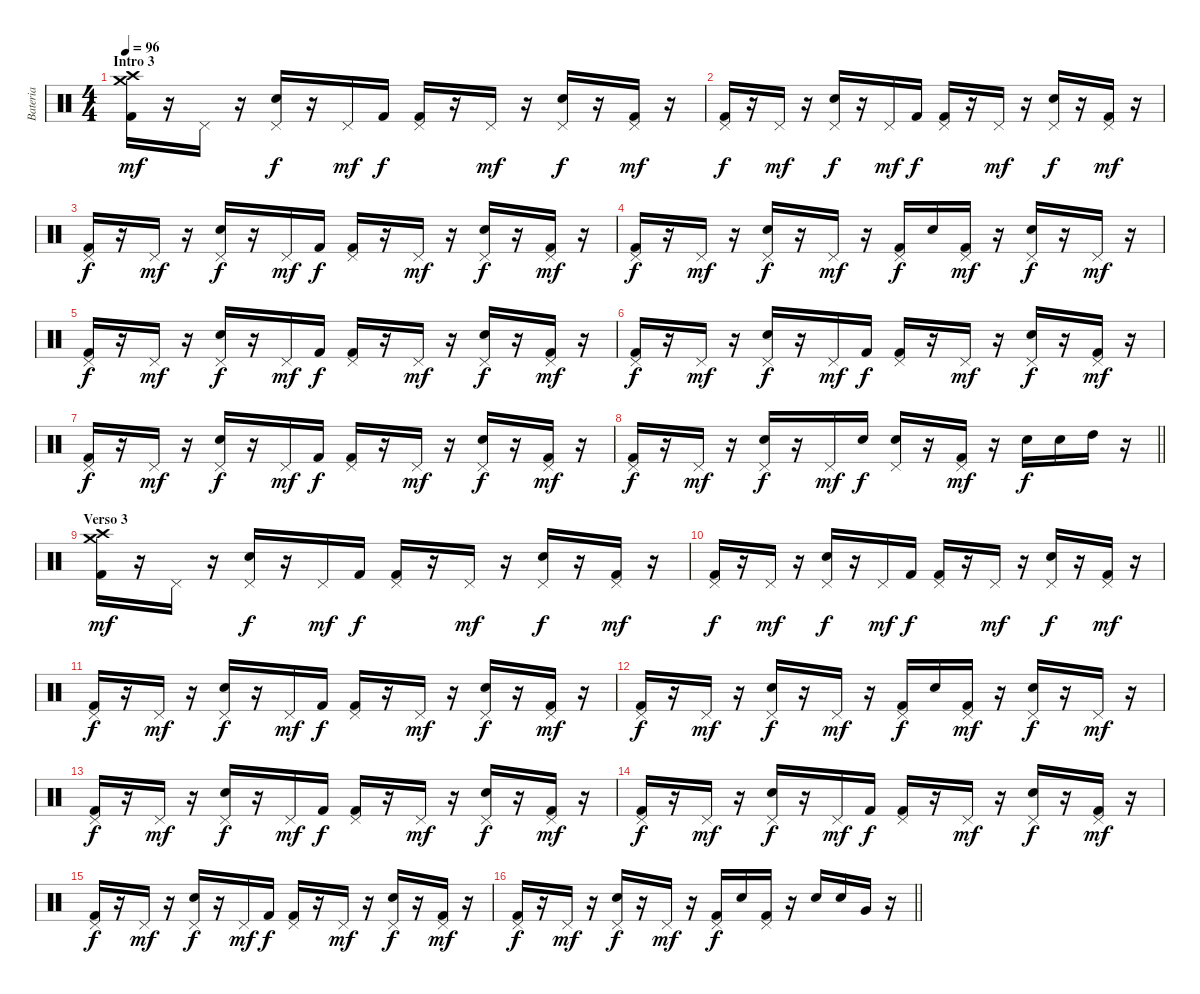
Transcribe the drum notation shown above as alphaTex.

\track ("Bateria" "Bateria") {instrument percussion}
\staff {score}
\articulation defaults
\ts (4 4)
\section ("" "Intro 3")
\tempo 96
\clef neutral
\ks c
("Crash medium (hit)" "Crash high (hit)" "Kick (hit) 2").16{dy mf} r.16 "Pedal Hi-Hat (hit)".16 r.16 ("Pedal Hi-Hat (hit)" "Electric Snare (hit)").16{dy f} r.16 "Pedal Hi-Hat (hit)".16{dy mf} "Kick (hit) 2".16{dy f} ("Pedal Hi-Hat (hit)" "Kick (hit) 2").16 r.16 "Pedal Hi-Hat (hit)".16{dy mf} r.16 ("Pedal Hi-Hat (hit)" "Electric Snare (hit)").16{dy f} r.16 ("Pedal Hi-Hat (hit)" "Kick (hit) 2").16{dy mf} r.16 |
("Pedal Hi-Hat (hit)" "Kick (hit) 2").16{dy f} r.16 "Pedal Hi-Hat (hit)".16{dy mf} r.16 ("Pedal Hi-Hat (hit)" "Electric Snare (hit)").16{dy f} r.16 "Pedal Hi-Hat (hit)".16{dy mf} "Kick (hit) 2".16{dy f} ("Pedal Hi-Hat (hit)" "Kick (hit) 2").16 r.16 "Pedal Hi-Hat (hit)".16{dy mf} r.16 ("Pedal Hi-Hat (hit)" "Electric Snare (hit)").16{dy f} r.16 ("Pedal Hi-Hat (hit)" "Kick (hit) 2").16{dy mf} r.16 |
("Pedal Hi-Hat (hit)" "Kick (hit) 2").16{dy f} r.16 "Pedal Hi-Hat (hit)".16{dy mf} r.16 ("Pedal Hi-Hat (hit)" "Electric Snare (hit)").16{dy f} r.16 "Pedal Hi-Hat (hit)".16{dy mf} "Kick (hit) 2".16{dy f} ("Pedal Hi-Hat (hit)" "Kick (hit) 2").16 r.16 "Pedal Hi-Hat (hit)".16{dy mf} r.16 ("Pedal Hi-Hat (hit)" "Electric Snare (hit)").16{dy f} r.16 ("Pedal Hi-Hat (hit)" "Kick (hit) 2").16{dy mf} r.16 |
("Pedal Hi-Hat (hit)" "Kick (hit) 2").16{dy f} r.16 "Pedal Hi-Hat (hit)".16{dy mf} r.16 ("Pedal Hi-Hat (hit)" "Electric Snare (hit)").16{dy f} r.16 "Pedal Hi-Hat (hit)".16{dy mf} r.16 ("Pedal Hi-Hat (hit)" "Kick (hit) 2").16{dy f} "Electric Snare (hit)".16 ("Pedal Hi-Hat (hit)" "Kick (hit) 2").16{dy mf} r.16 ("Pedal Hi-Hat (hit)" "Electric Snare (hit)").16{dy f} r.16 "Pedal Hi-Hat (hit)".16{dy mf} r.16 |
("Pedal Hi-Hat (hit)" "Kick (hit) 2").16{dy f} r.16 "Pedal Hi-Hat (hit)".16{dy mf} r.16 ("Pedal Hi-Hat (hit)" "Electric Snare (hit)").16{dy f} r.16 "Pedal Hi-Hat (hit)".16{dy mf} "Kick (hit) 2".16{dy f} ("Pedal Hi-Hat (hit)" "Kick (hit) 2").16 r.16 "Pedal Hi-Hat (hit)".16{dy mf} r.16 ("Pedal Hi-Hat (hit)" "Electric Snare (hit)").16{dy f} r.16 ("Pedal Hi-Hat (hit)" "Kick (hit) 2").16{dy mf} r.16 |
("Pedal Hi-Hat (hit)" "Kick (hit) 2").16{dy f} r.16 "Pedal Hi-Hat (hit)".16{dy mf} r.16 ("Pedal Hi-Hat (hit)" "Electric Snare (hit)").16{dy f} r.16 "Pedal Hi-Hat (hit)".16{dy mf} "Kick (hit) 2".16{dy f} ("Pedal Hi-Hat (hit)" "Kick (hit) 2").16 r.16 "Pedal Hi-Hat (hit)".16{dy mf} r.16 ("Pedal Hi-Hat (hit)" "Electric Snare (hit)").16{dy f} r.16 ("Pedal Hi-Hat (hit)" "Kick (hit) 2").16{dy mf} r.16 |
("Pedal Hi-Hat (hit)" "Kick (hit) 2").16{dy f} r.16 "Pedal Hi-Hat (hit)".16{dy mf} r.16 ("Pedal Hi-Hat (hit)" "Electric Snare (hit)").16{dy f} r.16 "Pedal Hi-Hat (hit)".16{dy mf} "Kick (hit) 2".16{dy f} ("Pedal Hi-Hat (hit)" "Kick (hit) 2").16 r.16 "Pedal Hi-Hat (hit)".16{dy mf} r.16 ("Pedal Hi-Hat (hit)" "Electric Snare (hit)").16{dy f} r.16 ("Pedal Hi-Hat (hit)" "Kick (hit) 2").16{dy mf} r.16 |
\barLineRight lightlight
("Pedal Hi-Hat (hit)" "Kick (hit) 2").16{dy f} r.16 "Pedal Hi-Hat (hit)".16{dy mf} r.16 ("Pedal Hi-Hat (hit)" "Electric Snare (hit)").16{dy f} r.16 "Pedal Hi-Hat (hit)".16{dy mf} "Electric Snare (hit)".16{dy f} ("Pedal Hi-Hat (hit)" "Electric Snare (hit)").16 r.16 ("Pedal Hi-Hat (hit)" "Kick (hit) 2").16{dy mf} r.16 "Electric Snare (hit)".16{dy f} "Electric Snare (hit)".16 "High Tom (hit)".16 r.16 |
\section ("" "Verso 3")
("Crash medium (hit)" "Crash high (hit)" "Kick (hit) 2").16{dy mf} r.16 "Pedal Hi-Hat (hit)".16 r.16 ("Pedal Hi-Hat (hit)" "Electric Snare (hit)").16{dy f} r.16 "Pedal Hi-Hat (hit)".16{dy mf} "Kick (hit) 2".16{dy f} ("Pedal Hi-Hat (hit)" "Kick (hit) 2").16 r.16 "Pedal Hi-Hat (hit)".16{dy mf} r.16 ("Pedal Hi-Hat (hit)" "Electric Snare (hit)").16{dy f} r.16 ("Pedal Hi-Hat (hit)" "Kick (hit) 2").16{dy mf} r.16 |
("Pedal Hi-Hat (hit)" "Kick (hit) 2").16{dy f} r.16 "Pedal Hi-Hat (hit)".16{dy mf} r.16 ("Pedal Hi-Hat (hit)" "Electric Snare (hit)").16{dy f} r.16 "Pedal Hi-Hat (hit)".16{dy mf} "Kick (hit) 2".16{dy f} ("Pedal Hi-Hat (hit)" "Kick (hit) 2").16 r.16 "Pedal Hi-Hat (hit)".16{dy mf} r.16 ("Pedal Hi-Hat (hit)" "Electric Snare (hit)").16{dy f} r.16 ("Pedal Hi-Hat (hit)" "Kick (hit) 2").16{dy mf} r.16 |
("Pedal Hi-Hat (hit)" "Kick (hit) 2").16{dy f} r.16 "Pedal Hi-Hat (hit)".16{dy mf} r.16 ("Pedal Hi-Hat (hit)" "Electric Snare (hit)").16{dy f} r.16 "Pedal Hi-Hat (hit)".16{dy mf} "Kick (hit) 2".16{dy f} ("Pedal Hi-Hat (hit)" "Kick (hit) 2").16 r.16 "Pedal Hi-Hat (hit)".16{dy mf} r.16 ("Pedal Hi-Hat (hit)" "Electric Snare (hit)").16{dy f} r.16 ("Pedal Hi-Hat (hit)" "Kick (hit) 2").16{dy mf} r.16 |
("Pedal Hi-Hat (hit)" "Kick (hit) 2").16{dy f} r.16 "Pedal Hi-Hat (hit)".16{dy mf} r.16 ("Pedal Hi-Hat (hit)" "Electric Snare (hit)").16{dy f} r.16 "Pedal Hi-Hat (hit)".16{dy mf} r.16 ("Pedal Hi-Hat (hit)" "Kick (hit) 2").16{dy f} "Electric Snare (hit)".16 ("Pedal Hi-Hat (hit)" "Kick (hit) 2").16{dy mf} r.16 ("Pedal Hi-Hat (hit)" "Electric Snare (hit)").16{dy f} r.16 "Pedal Hi-Hat (hit)".16{dy mf} r.16 |
("Pedal Hi-Hat (hit)" "Kick (hit) 2").16{dy f} r.16 "Pedal Hi-Hat (hit)".16{dy mf} r.16 ("Pedal Hi-Hat (hit)" "Electric Snare (hit)").16{dy f} r.16 "Pedal Hi-Hat (hit)".16{dy mf} "Kick (hit) 2".16{dy f} ("Pedal Hi-Hat (hit)" "Kick (hit) 2").16 r.16 "Pedal Hi-Hat (hit)".16{dy mf} r.16 ("Pedal Hi-Hat (hit)" "Electric Snare (hit)").16{dy f} r.16 ("Pedal Hi-Hat (hit)" "Kick (hit) 2").16{dy mf} r.16 |
("Pedal Hi-Hat (hit)" "Kick (hit) 2").16{dy f} r.16 "Pedal Hi-Hat (hit)".16{dy mf} r.16 ("Pedal Hi-Hat (hit)" "Electric Snare (hit)").16{dy f} r.16 "Pedal Hi-Hat (hit)".16{dy mf} "Kick (hit) 2".16{dy f} ("Pedal Hi-Hat (hit)" "Kick (hit) 2").16 r.16 "Pedal Hi-Hat (hit)".16{dy mf} r.16 ("Pedal Hi-Hat (hit)" "Electric Snare (hit)").16{dy f} r.16 ("Pedal Hi-Hat (hit)" "Kick (hit) 2").16{dy mf} r.16 |
("Pedal Hi-Hat (hit)" "Kick (hit) 2").16{dy f} r.16 "Pedal Hi-Hat (hit)".16{dy mf} r.16 ("Pedal Hi-Hat (hit)" "Electric Snare (hit)").16{dy f} r.16 "Pedal Hi-Hat (hit)".16{dy mf} "Kick (hit) 2".16{dy f} ("Pedal Hi-Hat (hit)" "Kick (hit) 2").16 r.16 "Pedal Hi-Hat (hit)".16{dy mf} r.16 ("Pedal Hi-Hat (hit)" "Electric Snare (hit)").16{dy f} r.16 ("Pedal Hi-Hat (hit)" "Kick (hit) 2").16{dy mf} r.16 |
\barLineRight lightlight
("Pedal Hi-Hat (hit)" "Kick (hit) 2").16{dy f} r.16 "Pedal Hi-Hat (hit)".16{dy mf} r.16 ("Pedal Hi-Hat (hit)" "Electric Snare (hit)").16{dy f} r.16 "Pedal Hi-Hat (hit)".16{dy mf} r.16 ("Pedal Hi-Hat (hit)" "Kick (hit) 2").16{dy f} "Electric Snare (hit)".16 ("Pedal Hi-Hat (hit)" "Kick (hit) 2").16 r.16 "Electric Snare (hit)".16 "Electric Snare (hit)".16 "Very Low Tom (hit)".16 r.16
